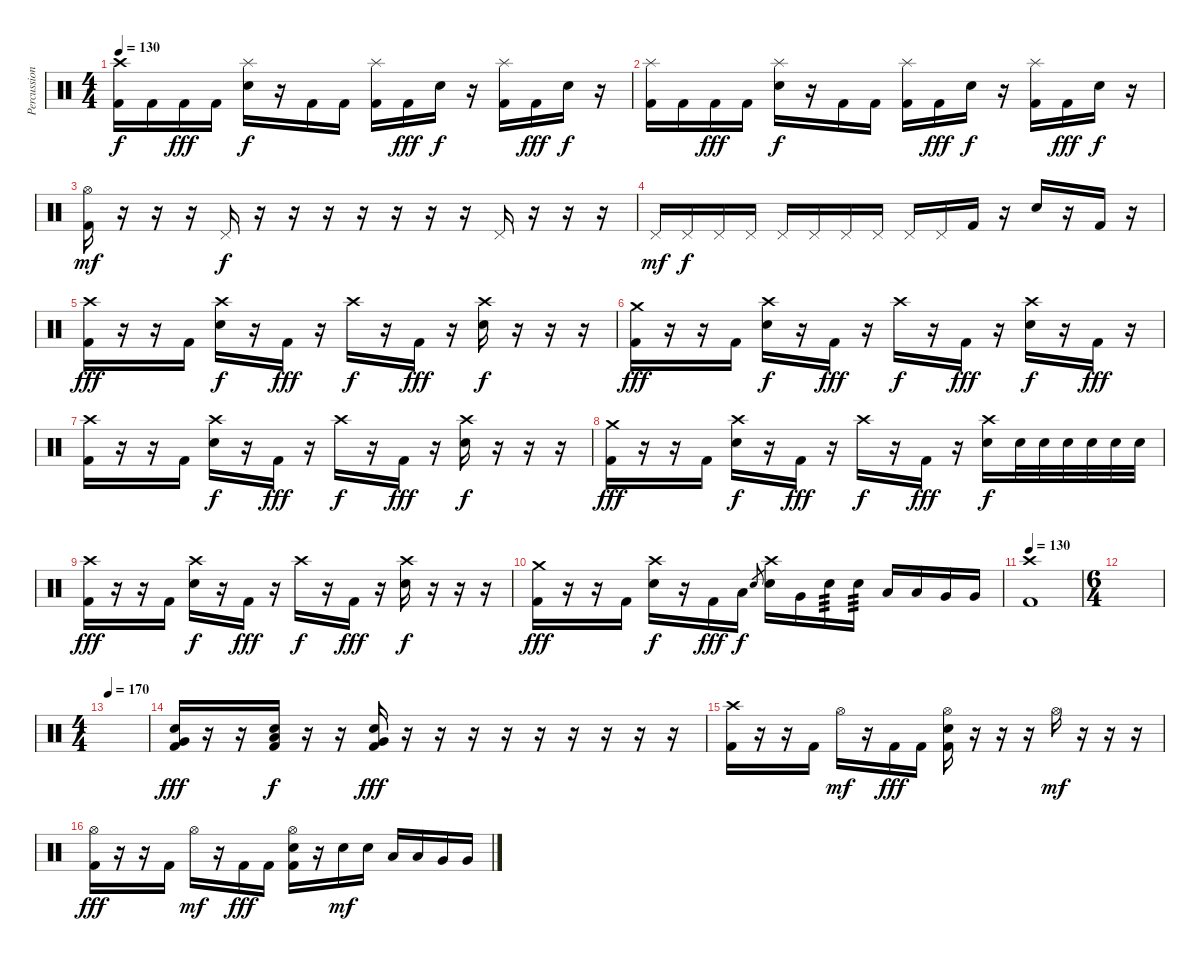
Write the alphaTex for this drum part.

\track ("Percussion" "Percussion") {instrument percussion}
\staff {score}
\articulation defaults
\ts (4 4)
\tempo 130
\clef neutral
\ks c
("Crash high (hit)" "Kick (hit) 2").16{dy f} "Kick (hit) 2".16 "Kick (hit) 2".16{dy fff} "Kick (hit) 2".16 ("Splash (hit)" "Electric Snare (hit)").16{dy f} r.16 "Kick (hit) 2".16 "Kick (hit) 2".16 ("Splash (hit)" "Kick (hit) 2").16 "Kick (hit) 2".16{dy fff} "Electric Snare (hit)".16{dy f} r.16 ("Splash (hit)" "Kick (hit) 2").16 "Kick (hit) 2".16{dy fff} "Electric Snare (hit)".16{dy f} r.16 |
("Splash (hit)" "Kick (hit) 2").16 "Kick (hit) 2".16 "Kick (hit) 2".16{dy fff} "Kick (hit) 2".16 ("Splash (hit)" "Electric Snare (hit)").16{dy f} r.16 "Kick (hit) 2".16 "Kick (hit) 2".16 ("Splash (hit)" "Kick (hit) 2").16 "Kick (hit) 2".16{dy fff} "Electric Snare (hit)".16{dy f} r.16 ("Splash (hit)" "Kick (hit) 2").16 "Kick (hit) 2".16{dy fff} "Electric Snare (hit)".16{dy f} r.16 |
("Hi-Hat (open)" "Kick (hit) 2").16{dy mf} r.16 r.16 r.16 "Pedal Hi-Hat (hit)".16{dy f} r.16 r.16 r.16 r.16 r.16 r.16 r.16 "Pedal Hi-Hat (hit)".16 r.16 r.16 r.16 |
"Pedal Hi-Hat (hit)".16{dy mf} "Pedal Hi-Hat (hit)".16{dy f} "Pedal Hi-Hat (hit)".16 "Pedal Hi-Hat (hit)".16 "Pedal Hi-Hat (hit)".16 "Pedal Hi-Hat (hit)".16 "Pedal Hi-Hat (hit)".16 "Pedal Hi-Hat (hit)".16 "Pedal Hi-Hat (hit)".16 "Pedal Hi-Hat (hit)".16 "Kick (hit) 2".16 r.16 "Electric Snare (hit)".16 r.16 "Kick (hit) 2".16 r.16 |
("Crash high (hit)" "Kick (hit) 2").16{dy fff} r.16 r.16 "Kick (hit) 2".16 ("Crash high (hit)" "Electric Snare (hit)").16{dy f} r.16 "Kick (hit) 2".16{dy fff} r.16 "Crash high (hit)".16{dy f} r.16 "Kick (hit) 2".16{dy fff} r.16 ("Crash high (hit)" "Electric Snare (hit)").16{dy f} r.16 r.16 r.16 |
("Crash medium (hit)" "Kick (hit) 2").16{dy fff} r.16 r.16 "Kick (hit) 2".16 ("Crash high (hit)" "Electric Snare (hit)").16{dy f} r.16 "Kick (hit) 2".16{dy fff} r.16 "Crash high (hit)".16{dy f} r.16 "Kick (hit) 2".16{dy fff} r.16 ("Crash high (hit)" "Electric Snare (hit)").16{dy f} r.16 "Kick (hit) 2".16{dy fff} r.16 |
("Crash high (hit)" "Kick (hit) 2").16 r.16 r.16 "Kick (hit) 2".16 ("Crash high (hit)" "Electric Snare (hit)").16{dy f} r.16 "Kick (hit) 2".16{dy fff} r.16 "Crash high (hit)".16{dy f} r.16 "Kick (hit) 2".16{dy fff} r.16 ("Crash high (hit)" "Electric Snare (hit)").16{dy f} r.16 r.16 r.16 |
("Crash medium (hit)" "Kick (hit) 2").16{dy fff} r.16 r.16 "Kick (hit) 2".16 ("Crash high (hit)" "Electric Snare (hit)").16{dy f} r.16 "Kick (hit) 2".16{dy fff} r.16 "Crash high (hit)".16{dy f} r.16 "Kick (hit) 2".16{dy fff} r.16 ("Crash high (hit)" "Electric Snare (hit)").16{dy f} "Electric Snare (hit)".32 "Electric Snare (hit)".32 "Electric Snare (hit)".32 "Electric Snare (hit)".32 "Electric Snare (hit)".32 "Electric Snare (hit)".32 |
("Crash high (hit)" "Kick (hit) 2").16{dy fff} r.16 r.16 "Kick (hit) 2".16 ("Crash high (hit)" "Electric Snare (hit)").16{dy f} r.16 "Kick (hit) 2".16{dy fff} r.16 "Crash high (hit)".16{dy f} r.16 "Kick (hit) 2".16{dy fff} r.16 ("Crash high (hit)" "Electric Snare (hit)").16{dy f} r.16 r.16 r.16 |
("Crash medium (hit)" "Kick (hit) 2").16{dy fff} r.16 r.16 "Kick (hit) 2".16 ("Crash high (hit)" "Electric Snare (hit)").16{dy f} r.16 "Kick (hit) 2".16{dy fff} "Low Tom (hit)".16{dy f} "Electric Snare (hit)".8{gr} ("Crash high (hit)" "Electric Snare (hit)").16 "Very Low Tom (hit)".16 "Electric Snare (hit)".16{tp 3} "Electric Snare (hit)".16{tp 3} "Low Tom (hit)".16 "Low Tom (hit)".16 "Very Low Tom (hit)".16 "Very Low Tom (hit)".16 |
\tempo 130
("Crash high (hit)" "Kick (hit) 2").1 |
\ts (6 4)
|
\ts (4 4)
\tempo 170
|
("Snare (hit) 2" "Very Low Tom (hit)" "Kick (hit) 2").16{dy fff} r.16 r.16 ("Electric Snare (hit)" "Low Floor Tom (hit)" "Kick (hit) 2").16{dy f} r.16 r.16 ("Snare (hit) 2" "Very Low Tom (hit)" "Kick (hit) 2").16{dy fff} r.16 r.16 r.16 r.16 r.16 r.16 r.16 r.16 r.16 |
("Crash high (hit)" "Kick (hit) 2").16 r.16 r.16 "Kick (hit) 2".16 "Hi-Hat (open)".16{dy mf} r.16 "Kick (hit) 2".16{dy fff} "Kick (hit) 2".16 ("Hi-Hat (open)" "Electric Snare (hit)" "Kick (hit) 2").16 r.16 r.16 r.16 "Hi-Hat (open)".16{dy mf} r.16 r.16 r.16 |
("Hi-Hat (open)" "Kick (hit) 2").16{dy fff} r.16 r.16 "Kick (hit) 2".16 "Hi-Hat (open)".16{dy mf} r.16 "Kick (hit) 2".16{dy fff} "Kick (hit) 2".16 ("Hi-Hat (open)" "Electric Snare (hit)" "Kick (hit) 2").16 r.16 "Electric Snare (hit)".16{dy mf} "Electric Snare (hit)".16 "Low Tom (hit)".16 "Low Tom (hit)".16 "Very Low Tom (hit)".16 "Very Low Tom (hit)".16
